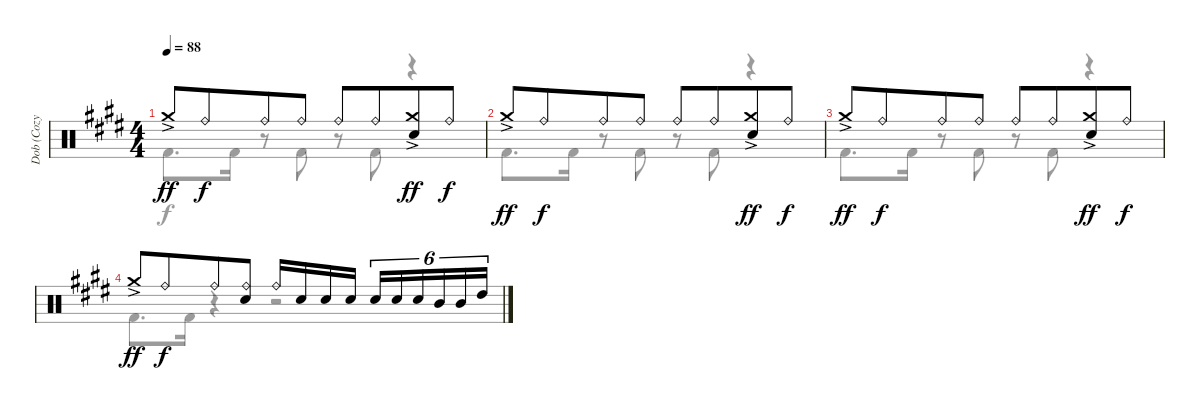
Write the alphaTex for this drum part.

\track ("Dob (Cozy Powell)" "Dob (Cozy ") {instrument percussion}
\staff {score}
\articulation defaults
\voice
\ts (4 4)
\tempo 88
\clef neutral
\ks e "Crash medium (hit)"{ac}.8{dy ff} "Ride (bell)".8{dy f beam merge} "Ride (bell)".8 "Ride (bell)".8 "Ride (bell)".8 "Ride (bell)".8{beam merge}
("Crash medium (hit)"{ac} "Electric Snare (hit)").8{dy ff} "Ride (bell)".8{dy f} |
"Crash medium (hit)"{ac}.8{dy ff} "Ride (bell)".8{dy f beam merge} "Ride (bell)".8 "Ride (bell)".8 "Ride (bell)".8 "Ride (bell)".8{beam merge} ("Crash medium (hit)"{ac} "Electric Snare (hit)").8{dy ff} "Ride (bell)".8{dy f} |
"Crash medium (hit)"{ac}.8{dy ff} "Ride (bell)".8{dy f beam merge} "Ride (bell)".8 "Ride (bell)".8 "Ride (bell)".8 "Ride (bell)".8{beam merge} ("Crash medium (hit)"{ac} "Electric Snare (hit)").8{dy ff} "Ride (bell)".8{dy f} |
"Crash medium (hit)"{ac}.8{dy ff} "Ride (bell)".8{dy f beam merge} "Ride (bell)".8 ("Ride (bell)" "Electric Snare (hit)").8 "Ride (bell)".16 "Electric Snare (hit)".16 "Electric Snare (hit)".16 "Electric Snare (hit)".16 "Electric Snare (hit)".16{tu (6 4)} "Electric Snare (hit)".16{tu (6 4)} "Electric Snare (hit)".16{tu (6 4)} "Mid Tom (hit)".16{tu (6 4)} "Mid Tom (hit)".16{tu (6 4)} "High Tom (hit)".16{tu (6 4)} |
\voice
\clef neutral
\ottava regular
\simile none
\ks e "Kick (hit) 2".8{d dy f} "Kick (hit) 2".16
r.8 "Kick (hit) 2".8 r.8 "Kick (hit) 2".8 r.4 |
"Kick (hit) 2".8{d} "Kick (hit) 2".16 r.8 "Kick (hit) 2".8 r.8 "Kick (hit) 2".8 r.4 |
"Kick (hit) 2".8{d} "Kick (hit) 2".16 r.8 "Kick (hit) 2".8 r.8 "Kick (hit) 2".8 r.4 |
"Kick (hit) 2".8{d} "Kick (hit) 2".16 r.4 r.2 |
